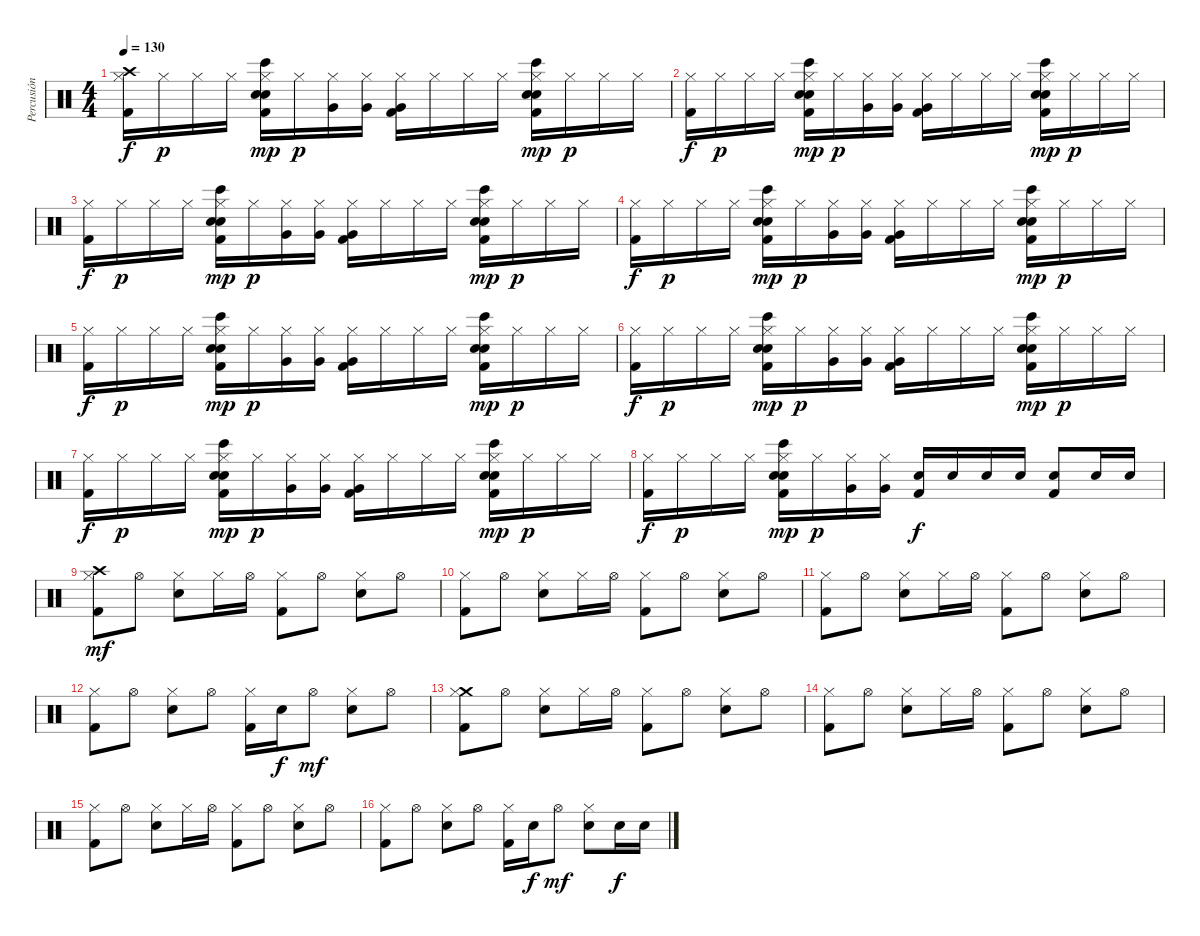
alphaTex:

\track ("Percusión" "Percusión") {instrument percussion}
\staff {score}
\articulation defaults
\ts (4 4)
\tempo 130
\clef neutral
\ks c
("Crash high (hit)" "Hi-Hat (closed)" "Kick (hit) 2").16{dy f} "Hi-Hat (closed)".16{dy p} "Hi-Hat (closed)".16 "Hi-Hat (closed)".16 ("Hi-Hat (closed)" "Kick (hit) 2" "Electric Snare (hit)" "Hand Clap (hit)" "Bongo High (hit)").16{dy mp} "Hi-Hat (closed)".16{dy p} ("Hi-Hat (closed)" "Very Low Tom (hit)").16 ("Hi-Hat (closed)" "Very Low Tom (hit)").16 ("Hi-Hat (closed)" "Kick (hit) 2" "Very Low Tom (hit)").16 "Hi-Hat (closed)".16 "Hi-Hat (closed)".16 "Hi-Hat (closed)".16 ("Hi-Hat (closed)" "Kick (hit) 2" "Electric Snare (hit)" "Hand Clap (hit)" "Bongo High (hit)").16{dy mp} "Hi-Hat (closed)".16{dy p} "Hi-Hat (closed)".16 "Hi-Hat (closed)".16 |
("Hi-Hat (closed)" "Kick (hit) 2").16{dy f} "Hi-Hat (closed)".16{dy p} "Hi-Hat (closed)".16 "Hi-Hat (closed)".16 ("Hi-Hat (closed)" "Kick (hit) 2" "Electric Snare (hit)" "Hand Clap (hit)" "Bongo High (hit)").16{dy mp} "Hi-Hat (closed)".16{dy p} ("Hi-Hat (closed)" "Very Low Tom (hit)").16 ("Hi-Hat (closed)" "Very Low Tom (hit)").16 ("Hi-Hat (closed)" "Kick (hit) 2" "Very Low Tom (hit)").16 "Hi-Hat (closed)".16 "Hi-Hat (closed)".16 "Hi-Hat (closed)".16 ("Hi-Hat (closed)" "Kick (hit) 2" "Electric Snare (hit)" "Hand Clap (hit)" "Bongo High (hit)").16{dy mp} "Hi-Hat (closed)".16{dy p} "Hi-Hat (closed)".16 "Hi-Hat (closed)".16 |
("Hi-Hat (closed)" "Kick (hit) 2").16{dy f} "Hi-Hat (closed)".16{dy p} "Hi-Hat (closed)".16 "Hi-Hat (closed)".16 ("Hi-Hat (closed)" "Kick (hit) 2" "Electric Snare (hit)" "Hand Clap (hit)" "Bongo High (hit)").16{dy mp} "Hi-Hat (closed)".16{dy p} ("Hi-Hat (closed)" "Very Low Tom (hit)").16 ("Hi-Hat (closed)" "Very Low Tom (hit)").16 ("Hi-Hat (closed)" "Kick (hit) 2" "Very Low Tom (hit)").16 "Hi-Hat (closed)".16 "Hi-Hat (closed)".16 "Hi-Hat (closed)".16 ("Hi-Hat (closed)" "Kick (hit) 2" "Electric Snare (hit)" "Hand Clap (hit)" "Bongo High (hit)").16{dy mp} "Hi-Hat (closed)".16{dy p} "Hi-Hat (closed)".16 "Hi-Hat (closed)".16 |
("Hi-Hat (closed)" "Kick (hit) 2").16{dy f} "Hi-Hat (closed)".16{dy p} "Hi-Hat (closed)".16 "Hi-Hat (closed)".16 ("Hi-Hat (closed)" "Kick (hit) 2" "Electric Snare (hit)" "Hand Clap (hit)" "Bongo High (hit)").16{dy mp} "Hi-Hat (closed)".16{dy p} ("Hi-Hat (closed)" "Very Low Tom (hit)").16 ("Hi-Hat (closed)" "Very Low Tom (hit)").16 ("Hi-Hat (closed)" "Kick (hit) 2" "Very Low Tom (hit)").16 "Hi-Hat (closed)".16 "Hi-Hat (closed)".16 "Hi-Hat (closed)".16 ("Hi-Hat (closed)" "Kick (hit) 2" "Electric Snare (hit)" "Hand Clap (hit)" "Bongo High (hit)").16{dy mp} "Hi-Hat (closed)".16{dy p} "Hi-Hat (closed)".16 "Hi-Hat (closed)".16 |
("Hi-Hat (closed)" "Kick (hit) 2").16{dy f} "Hi-Hat (closed)".16{dy p} "Hi-Hat (closed)".16 "Hi-Hat (closed)".16 ("Hi-Hat (closed)" "Kick (hit) 2" "Electric Snare (hit)" "Hand Clap (hit)" "Bongo High (hit)").16{dy mp} "Hi-Hat (closed)".16{dy p} ("Hi-Hat (closed)" "Very Low Tom (hit)").16 ("Hi-Hat (closed)" "Very Low Tom (hit)").16 ("Hi-Hat (closed)" "Kick (hit) 2" "Very Low Tom (hit)").16 "Hi-Hat (closed)".16 "Hi-Hat (closed)".16 "Hi-Hat (closed)".16 ("Hi-Hat (closed)" "Kick (hit) 2" "Electric Snare (hit)" "Hand Clap (hit)" "Bongo High (hit)").16{dy mp} "Hi-Hat (closed)".16{dy p} "Hi-Hat (closed)".16 "Hi-Hat (closed)".16 |
("Hi-Hat (closed)" "Kick (hit) 2").16{dy f} "Hi-Hat (closed)".16{dy p} "Hi-Hat (closed)".16 "Hi-Hat (closed)".16 ("Hi-Hat (closed)" "Kick (hit) 2" "Electric Snare (hit)" "Hand Clap (hit)" "Bongo High (hit)").16{dy mp} "Hi-Hat (closed)".16{dy p} ("Hi-Hat (closed)" "Very Low Tom (hit)").16 ("Hi-Hat (closed)" "Very Low Tom (hit)").16 ("Hi-Hat (closed)" "Kick (hit) 2" "Very Low Tom (hit)").16 "Hi-Hat (closed)".16 "Hi-Hat (closed)".16 "Hi-Hat (closed)".16 ("Hi-Hat (closed)" "Kick (hit) 2" "Electric Snare (hit)" "Hand Clap (hit)" "Bongo High (hit)").16{dy mp} "Hi-Hat (closed)".16{dy p} "Hi-Hat (closed)".16 "Hi-Hat (closed)".16 |
("Hi-Hat (closed)" "Kick (hit) 2").16{dy f} "Hi-Hat (closed)".16{dy p} "Hi-Hat (closed)".16 "Hi-Hat (closed)".16 ("Hi-Hat (closed)" "Kick (hit) 2" "Electric Snare (hit)" "Hand Clap (hit)" "Bongo High (hit)").16{dy mp} "Hi-Hat (closed)".16{dy p} ("Hi-Hat (closed)" "Very Low Tom (hit)").16 ("Hi-Hat (closed)" "Very Low Tom (hit)").16 ("Hi-Hat (closed)" "Kick (hit) 2" "Very Low Tom (hit)").16 "Hi-Hat (closed)".16 "Hi-Hat (closed)".16 "Hi-Hat (closed)".16 ("Hi-Hat (closed)" "Kick (hit) 2" "Electric Snare (hit)" "Hand Clap (hit)" "Bongo High (hit)").16{dy mp} "Hi-Hat (closed)".16{dy p} "Hi-Hat (closed)".16 "Hi-Hat (closed)".16 |
("Hi-Hat (closed)" "Kick (hit) 2").16{dy f} "Hi-Hat (closed)".16{dy p} "Hi-Hat (closed)".16 "Hi-Hat (closed)".16 ("Hi-Hat (closed)" "Kick (hit) 2" "Electric Snare (hit)" "Hand Clap (hit)" "Bongo High (hit)").16{dy mp} "Hi-Hat (closed)".16{dy p} ("Hi-Hat (closed)" "Very Low Tom (hit)").16 ("Hi-Hat (closed)" "Very Low Tom (hit)").16 ("Snare (hit) 2" "Kick (hit) 2").16{dy f} "Snare (hit) 2".16 "Snare (hit) 2".16 "Snare (hit) 2".16 ("Snare (hit) 2" "Kick (hit) 2").8 "Snare (hit) 2".16 "Snare (hit) 2".16 |
("Crash high (hit)" "Hi-Hat (closed)" "Kick (hit) 2").8{dy mf} "Hi-Hat (open)".8 ("Hi-Hat (closed)" "Snare (hit) 2").8 "Hi-Hat (closed)".16 "Hi-Hat (open)".16 ("Hi-Hat (closed)" "Kick (hit) 2").8 "Hi-Hat (open)".8 ("Hi-Hat (closed)" "Snare (hit) 2").8 "Hi-Hat (open)".8 |
("Hi-Hat (closed)" "Kick (hit) 2").8 "Hi-Hat (open)".8 ("Hi-Hat (closed)" "Snare (hit) 2").8 "Hi-Hat (closed)".16 "Hi-Hat (open)".16 ("Hi-Hat (closed)" "Kick (hit) 2").8 "Hi-Hat (open)".8 ("Hi-Hat (closed)" "Snare (hit) 2").8 "Hi-Hat (open)".8 |
("Hi-Hat (closed)" "Kick (hit) 2").8 "Hi-Hat (open)".8 ("Hi-Hat (closed)" "Snare (hit) 2").8 "Hi-Hat (closed)".16 "Hi-Hat (open)".16 ("Hi-Hat (closed)" "Kick (hit) 2").8 "Hi-Hat (open)".8 ("Hi-Hat (closed)" "Snare (hit) 2").8 "Hi-Hat (open)".8 |
("Hi-Hat (closed)" "Kick (hit) 2").8 "Hi-Hat (open)".8 ("Hi-Hat (closed)" "Snare (hit) 2").8 "Hi-Hat (open)".8 ("Hi-Hat (closed)" "Kick (hit) 2").16 "Snare (hit) 2".16{dy f} "Hi-Hat (open)".8{dy mf} ("Hi-Hat (closed)" "Snare (hit) 2").8 "Hi-Hat (open)".8 |
("Crash medium (hit)" "Hi-Hat (closed)" "Kick (hit) 2").8 "Hi-Hat (open)".8 ("Hi-Hat (closed)" "Snare (hit) 2").8 "Hi-Hat (closed)".16 "Hi-Hat (open)".16 ("Hi-Hat (closed)" "Kick (hit) 2").8 "Hi-Hat (open)".8 ("Hi-Hat (closed)" "Snare (hit) 2").8 "Hi-Hat (open)".8 |
("Hi-Hat (closed)" "Kick (hit) 2").8 "Hi-Hat (open)".8 ("Hi-Hat (closed)" "Snare (hit) 2").8 "Hi-Hat (closed)".16 "Hi-Hat (open)".16 ("Hi-Hat (closed)" "Kick (hit) 2").8 "Hi-Hat (open)".8 ("Hi-Hat (closed)" "Snare (hit) 2").8 "Hi-Hat (open)".8 |
("Hi-Hat (closed)" "Kick (hit) 2").8 "Hi-Hat (open)".8 ("Hi-Hat (closed)" "Snare (hit) 2").8 "Hi-Hat (closed)".16 "Hi-Hat (open)".16 ("Hi-Hat (closed)" "Kick (hit) 2").8 "Hi-Hat (open)".8 ("Hi-Hat (closed)" "Snare (hit) 2").8 "Hi-Hat (open)".8 |
("Hi-Hat (closed)" "Kick (hit) 2").8 "Hi-Hat (open)".8 ("Hi-Hat (closed)" "Snare (hit) 2").8 "Hi-Hat (open)".8 ("Hi-Hat (closed)" "Kick (hit) 2").16 "Snare (hit) 2".16{dy f} "Hi-Hat (open)".8{dy mf} ("Hi-Hat (closed)" "Snare (hit) 2").8 "Snare (hit) 2".16{dy f} "Snare (hit) 2".16
